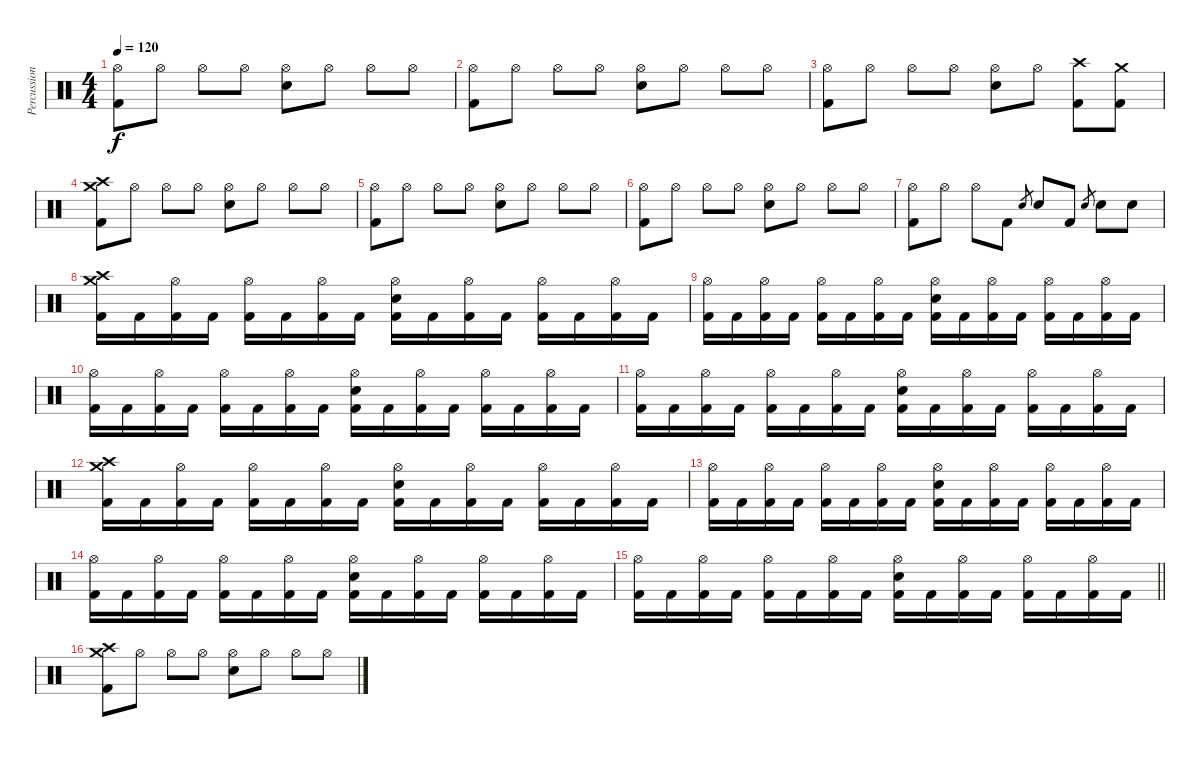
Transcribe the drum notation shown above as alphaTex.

\track ("Percussion" "Percussion") {instrument percussion}
\staff {score}
\articulation defaults
\ts (4 4)
\tempo 120
\clef neutral
\ks c
("Hi-Hat (open)" "Kick (hit) 2").8{dy f} "Hi-Hat (open)".8 "Hi-Hat (open)".8 "Hi-Hat (open)".8 ("Hi-Hat (open)" "Electric Snare (hit)").8 "Hi-Hat (open)".8 "Hi-Hat (open)".8 "Hi-Hat (open)".8 |
("Hi-Hat (open)" "Kick (hit) 2").8 "Hi-Hat (open)".8 "Hi-Hat (open)".8 "Hi-Hat (open)".8 ("Hi-Hat (open)" "Electric Snare (hit)").8 "Hi-Hat (open)".8 "Hi-Hat (open)".8 "Hi-Hat (open)".8 |
("Hi-Hat (open)" "Kick (hit) 2").8 "Hi-Hat (open)".8 "Hi-Hat (open)".8 "Hi-Hat (open)".8 ("Hi-Hat (open)" "Electric Snare (hit)").8 "Hi-Hat (open)".8 ("Crash high (hit)" "Kick (hit) 2").8 ("Crash medium (hit)" "Kick (hit) 2").8 |
("Crash medium (hit)" "Crash high (hit)" "Kick (hit) 2").8 "Hi-Hat (open)".8 "Hi-Hat (open)".8 "Hi-Hat (open)".8 ("Hi-Hat (open)" "Electric Snare (hit)").8 "Hi-Hat (open)".8 "Hi-Hat (open)".8 "Hi-Hat (open)".8 |
("Hi-Hat (open)" "Kick (hit) 2").8 "Hi-Hat (open)".8 "Hi-Hat (open)".8 "Hi-Hat (open)".8 ("Hi-Hat (open)" "Electric Snare (hit)").8 "Hi-Hat (open)".8 "Hi-Hat (open)".8 "Hi-Hat (open)".8 |
("Hi-Hat (open)" "Kick (hit) 2").8 "Hi-Hat (open)".8 "Hi-Hat (open)".8 "Hi-Hat (open)".8 ("Hi-Hat (open)" "Electric Snare (hit)").8 "Hi-Hat (open)".8 "Hi-Hat (open)".8 "Hi-Hat (open)".8 |
("Hi-Hat (open)" "Kick (hit) 2").8 "Hi-Hat (open)".8 "Hi-Hat (open)".8 "Kick (hit) 2".8 "Electric Snare (hit)".8{gr} "Electric Snare (hit)".8 "Kick (hit) 2".8 "Electric Snare (hit)".8{gr} "Electric Snare (hit)".8 "Electric Snare (hit)".8 |
("Crash medium (hit)" "Crash high (hit)" "Kick (hit) 2").16 "Kick (hit) 2".16 ("Hi-Hat (open)" "Kick (hit) 2").16 "Kick (hit) 2".16 ("Hi-Hat (open)" "Kick (hit) 2").16 "Kick (hit) 2".16 ("Hi-Hat (open)" "Kick (hit) 2").16 "Kick (hit) 2".16 ("Hi-Hat (open)" "Electric Snare (hit)" "Kick (hit) 2").16 "Kick (hit) 2".16 ("Hi-Hat (open)" "Kick (hit) 2").16 "Kick (hit) 2".16 ("Hi-Hat (open)" "Kick (hit) 2").16 "Kick (hit) 2".16 ("Hi-Hat (open)" "Kick (hit) 2").16 "Kick (hit) 2".16 |
("Hi-Hat (open)" "Kick (hit) 2").16 "Kick (hit) 2".16 ("Hi-Hat (open)" "Kick (hit) 2").16 "Kick (hit) 2".16 ("Hi-Hat (open)" "Kick (hit) 2").16 "Kick (hit) 2".16 ("Hi-Hat (open)" "Kick (hit) 2").16 "Kick (hit) 2".16 ("Hi-Hat (open)" "Electric Snare (hit)" "Kick (hit) 2").16 "Kick (hit) 2".16 ("Hi-Hat (open)" "Kick (hit) 2").16 "Kick (hit) 2".16 ("Hi-Hat (open)" "Kick (hit) 2").16 "Kick (hit) 2".16 ("Hi-Hat (open)" "Kick (hit) 2").16 "Kick (hit) 2".16 |
("Hi-Hat (open)" "Kick (hit) 2").16 "Kick (hit) 2".16 ("Hi-Hat (open)" "Kick (hit) 2").16 "Kick (hit) 2".16 ("Hi-Hat (open)" "Kick (hit) 2").16 "Kick (hit) 2".16 ("Hi-Hat (open)" "Kick (hit) 2").16 "Kick (hit) 2".16 ("Hi-Hat (open)" "Electric Snare (hit)" "Kick (hit) 2").16 "Kick (hit) 2".16 ("Hi-Hat (open)" "Kick (hit) 2").16 "Kick (hit) 2".16 ("Hi-Hat (open)" "Kick (hit) 2").16 "Kick (hit) 2".16 ("Hi-Hat (open)" "Kick (hit) 2").16 "Kick (hit) 2".16 |
("Hi-Hat (open)" "Kick (hit) 2").16 "Kick (hit) 2".16 ("Hi-Hat (open)" "Kick (hit) 2").16 "Kick (hit) 2".16 ("Hi-Hat (open)" "Kick (hit) 2").16 "Kick (hit) 2".16 ("Hi-Hat (open)" "Kick (hit) 2").16 "Kick (hit) 2".16 ("Hi-Hat (open)" "Electric Snare (hit)" "Kick (hit) 2").16 "Kick (hit) 2".16 ("Hi-Hat (open)" "Kick (hit) 2").16 "Kick (hit) 2".16 ("Hi-Hat (open)" "Kick (hit) 2").16 "Kick (hit) 2".16 ("Hi-Hat (open)" "Kick (hit) 2").16 "Kick (hit) 2".16 |
("Crash medium (hit)" "Crash high (hit)" "Kick (hit) 2").16 "Kick (hit) 2".16 ("Hi-Hat (open)" "Kick (hit) 2").16 "Kick (hit) 2".16 ("Hi-Hat (open)" "Kick (hit) 2").16 "Kick (hit) 2".16 ("Hi-Hat (open)" "Kick (hit) 2").16 "Kick (hit) 2".16 ("Hi-Hat (open)" "Electric Snare (hit)" "Kick (hit) 2").16 "Kick (hit) 2".16 ("Hi-Hat (open)" "Kick (hit) 2").16 "Kick (hit) 2".16 ("Hi-Hat (open)" "Kick (hit) 2").16 "Kick (hit) 2".16 ("Hi-Hat (open)" "Kick (hit) 2").16 "Kick (hit) 2".16 |
("Hi-Hat (open)" "Kick (hit) 2").16 "Kick (hit) 2".16 ("Hi-Hat (open)" "Kick (hit) 2").16 "Kick (hit) 2".16 ("Hi-Hat (open)" "Kick (hit) 2").16 "Kick (hit) 2".16 ("Hi-Hat (open)" "Kick (hit) 2").16 "Kick (hit) 2".16 ("Hi-Hat (open)" "Electric Snare (hit)" "Kick (hit) 2").16 "Kick (hit) 2".16 ("Hi-Hat (open)" "Kick (hit) 2").16 "Kick (hit) 2".16 ("Hi-Hat (open)" "Kick (hit) 2").16 "Kick (hit) 2".16 ("Hi-Hat (open)" "Kick (hit) 2").16 "Kick (hit) 2".16 |
("Hi-Hat (open)" "Kick (hit) 2").16 "Kick (hit) 2".16 ("Hi-Hat (open)" "Kick (hit) 2").16 "Kick (hit) 2".16 ("Hi-Hat (open)" "Kick (hit) 2").16 "Kick (hit) 2".16 ("Hi-Hat (open)" "Kick (hit) 2").16 "Kick (hit) 2".16 ("Hi-Hat (open)" "Electric Snare (hit)" "Kick (hit) 2").16 "Kick (hit) 2".16 ("Hi-Hat (open)" "Kick (hit) 2").16 "Kick (hit) 2".16 ("Hi-Hat (open)" "Kick (hit) 2").16 "Kick (hit) 2".16 ("Hi-Hat (open)" "Kick (hit) 2").16 "Kick (hit) 2".16 |
\barLineRight lightlight
("Hi-Hat (open)" "Kick (hit) 2").16 "Kick (hit) 2".16 ("Hi-Hat (open)" "Kick (hit) 2").16 "Kick (hit) 2".16 ("Hi-Hat (open)" "Kick (hit) 2").16 "Kick (hit) 2".16 ("Hi-Hat (open)" "Kick (hit) 2").16 "Kick (hit) 2".16 ("Hi-Hat (open)" "Electric Snare (hit)" "Kick (hit) 2").16 "Kick (hit) 2".16 ("Hi-Hat (open)" "Kick (hit) 2").16 "Kick (hit) 2".16 ("Hi-Hat (open)" "Kick (hit) 2").16 "Kick (hit) 2".16 ("Hi-Hat (open)" "Kick (hit) 2").16 "Kick (hit) 2".16 |
("Crash medium (hit)" "Crash high (hit)" "Kick (hit) 2").8 "Hi-Hat (open)".8 "Hi-Hat (open)".8 "Hi-Hat (open)".8 ("Hi-Hat (open)" "Electric Snare (hit)").8 "Hi-Hat (open)".8 "Hi-Hat (open)".8 "Hi-Hat (open)".8
